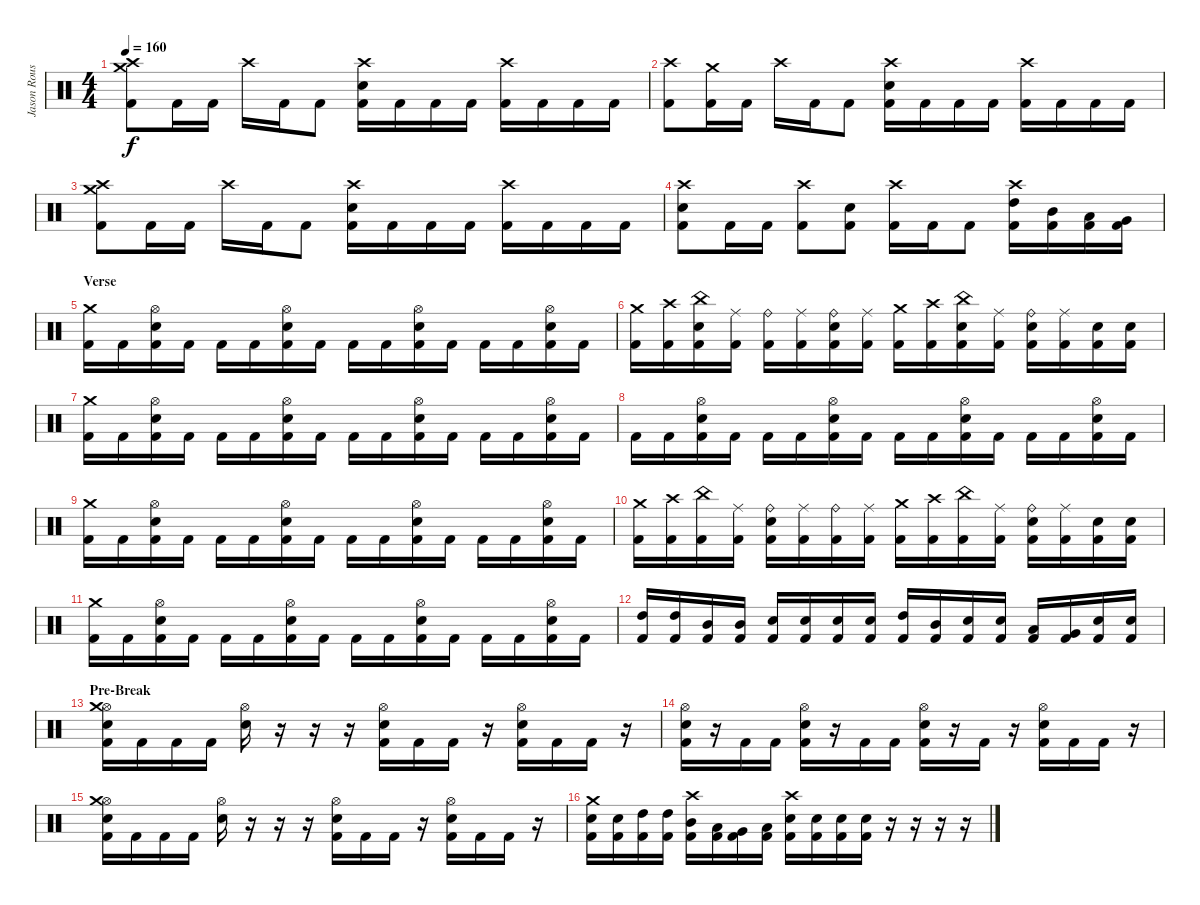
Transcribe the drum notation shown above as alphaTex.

\track ("Jason Rousseau" "Jason Rous") {instrument percussion}
\staff {score}
\articulation defaults
\ts (4 4)
\tempo 160
\clef neutral
\ks c
("Crash medium (hit)" "Crash high (hit)" "Kick (hit) 2").8{dy f} "Kick (hit) 2".16 "Kick (hit) 2".16 "Crash high (hit)".16 "Kick (hit) 2".16 "Kick (hit) 2".8 ("Crash high (hit)" "Electric Snare (hit)" "Kick (hit) 2").16 "Kick (hit) 2".16 "Kick (hit) 2".16 "Kick (hit) 2".16 ("Crash high (hit)" "Kick (hit) 2").16 "Kick (hit) 2".16 "Kick (hit) 2".16 "Kick (hit) 2".16 |
("Crash high (hit)" "Kick (hit) 2").8 ("Crash medium (hit)" "Kick (hit) 2").16 "Kick (hit) 2".16 "Crash high (hit)".16 "Kick (hit) 2".16 "Kick (hit) 2".8 ("Crash high (hit)" "Electric Snare (hit)" "Kick (hit) 2").16 "Kick (hit) 2".16 "Kick (hit) 2".16 "Kick (hit) 2".16 ("Crash high (hit)" "Kick (hit) 2").16 "Kick (hit) 2".16 "Kick (hit) 2".16 "Kick (hit) 2".16 |
("Crash medium (hit)" "Crash high (hit)" "Kick (hit) 2").8 "Kick (hit) 2".16 "Kick (hit) 2".16 "Crash high (hit)".16 "Kick (hit) 2".16 "Kick (hit) 2".8 ("Crash high (hit)" "Electric Snare (hit)" "Kick (hit) 2").16 "Kick (hit) 2".16 "Kick (hit) 2".16 "Kick (hit) 2".16 ("Crash high (hit)" "Kick (hit) 2").16 "Kick (hit) 2".16 "Kick (hit) 2".16 "Kick (hit) 2".16 |
("Crash high (hit)" "Electric Snare (hit)" "Kick (hit) 2").8 "Kick (hit) 2".16 "Kick (hit) 2".16 ("Crash high (hit)" "Kick (hit) 2").8 ("Electric Snare (hit)" "Kick (hit) 2").8 ("Crash high (hit)" "Kick (hit) 2").16 "Kick (hit) 2".16 "Kick (hit) 2".8 ("Crash high (hit)" "High Tom (hit)" "Kick (hit) 2").16 ("Mid Tom (hit)" "Kick (hit) 2").16 ("Low Tom (hit)" "Kick (hit) 2").16 ("Very Low Tom (hit)" "Kick (hit) 2").16 |
\section ("" "Verse")
("Crash medium (hit)" "Kick (hit) 2").16 "Kick (hit) 2".16 ("Hi-Hat (open)" "Electric Snare (hit)" "Kick (hit) 2").16 "Kick (hit) 2".16 "Kick (hit) 2".16 "Kick (hit) 2".16 ("Hi-Hat (open)" "Electric Snare (hit)" "Kick (hit) 2").16 "Kick (hit) 2".16 "Kick (hit) 2".16 "Kick (hit) 2".16 ("Hi-Hat (open)" "Electric Snare (hit)" "Kick (hit) 2").16 "Kick (hit) 2".16 "Kick (hit) 2".16 "Kick (hit) 2".16 ("Hi-Hat (open)" "Electric Snare (hit)" "Kick (hit) 2").16 "Kick (hit) 2".16 |
("Crash medium (hit)" "Kick (hit) 2").16 ("Crash high (hit)" "Kick (hit) 2").16 ("China (hit)" "Electric Snare (hit)" "Kick (hit) 2").16 ("Ride (middle)" "Kick (hit) 2").16 ("Ride (bell)" "Kick (hit) 2").16 ("Ride (middle)" "Kick (hit) 2").16 ("Ride (bell)" "Electric Snare (hit)" "Kick (hit) 2").16 ("Ride (middle)" "Kick (hit) 2").16 ("Crash medium (hit)" "Kick (hit) 2").16 ("Crash high (hit)" "Kick (hit) 2").16 ("China (hit)" "Electric Snare (hit)" "Kick (hit) 2").16 ("Ride (middle)" "Kick (hit) 2").16 ("Ride (bell)" "Electric Snare (hit)" "Kick (hit) 2").16 ("Ride (middle)" "Kick (hit) 2").16 ("Electric Snare (hit)" "Kick (hit) 2").16 ("Electric Snare (hit)" "Kick (hit) 2").16 |
("Crash medium (hit)" "Kick (hit) 2").16 "Kick (hit) 2".16 ("Hi-Hat (open)" "Electric Snare (hit)" "Kick (hit) 2").16 "Kick (hit) 2".16 "Kick (hit) 2".16 "Kick (hit) 2".16 ("Hi-Hat (open)" "Electric Snare (hit)" "Kick (hit) 2").16 "Kick (hit) 2".16 "Kick (hit) 2".16 "Kick (hit) 2".16 ("Hi-Hat (open)" "Electric Snare (hit)" "Kick (hit) 2").16 "Kick (hit) 2".16 "Kick (hit) 2".16 "Kick (hit) 2".16 ("Hi-Hat (open)" "Electric Snare (hit)" "Kick (hit) 2").16 "Kick (hit) 2".16 |
"Kick (hit) 2".16 "Kick (hit) 2".16 ("Hi-Hat (open)" "Electric Snare (hit)" "Kick (hit) 2").16 "Kick (hit) 2".16 "Kick (hit) 2".16 "Kick (hit) 2".16 ("Hi-Hat (open)" "Electric Snare (hit)" "Kick (hit) 2").16 "Kick (hit) 2".16 "Kick (hit) 2".16 "Kick (hit) 2".16 ("Hi-Hat (open)" "Electric Snare (hit)" "Kick (hit) 2").16 "Kick (hit) 2".16 "Kick (hit) 2".16 "Kick (hit) 2".16 ("Hi-Hat (open)" "Electric Snare (hit)" "Kick (hit) 2").16 "Kick (hit) 2".16 |
("Crash medium (hit)" "Kick (hit) 2").16 "Kick (hit) 2".16 ("Hi-Hat (open)" "Electric Snare (hit)" "Kick (hit) 2").16 "Kick (hit) 2".16 "Kick (hit) 2".16 "Kick (hit) 2".16 ("Hi-Hat (open)" "Electric Snare (hit)" "Kick (hit) 2").16 "Kick (hit) 2".16 "Kick (hit) 2".16 "Kick (hit) 2".16 ("Hi-Hat (open)" "Electric Snare (hit)" "Kick (hit) 2").16 "Kick (hit) 2".16 "Kick (hit) 2".16 "Kick (hit) 2".16 ("Hi-Hat (open)" "Electric Snare (hit)" "Kick (hit) 2").16 "Kick (hit) 2".16 |
("Crash medium (hit)" "Kick (hit) 2").16 ("Crash high (hit)" "Kick (hit) 2").16 ("China (hit)" "Kick (hit) 2").16 ("Ride (middle)" "Kick (hit) 2").16 ("Ride (bell)" "Electric Snare (hit)" "Kick (hit) 2").16 ("Ride (middle)" "Kick (hit) 2").16 ("Ride (bell)" "Kick (hit) 2").16 ("Ride (middle)" "Kick (hit) 2").16 ("Crash medium (hit)" "Kick (hit) 2").16 ("Crash high (hit)" "Kick (hit) 2").16 ("China (hit)" "Kick (hit) 2").16 ("Ride (middle)" "Kick (hit) 2").16 ("Ride (bell)" "Electric Snare (hit)" "Kick (hit) 2").16 ("Ride (middle)" "Kick (hit) 2").16 ("Electric Snare (hit)" "Kick (hit) 2").16 ("Electric Snare (hit)" "Kick (hit) 2").16 |
("Crash medium (hit)" "Kick (hit) 2").16 "Kick (hit) 2".16 ("Hi-Hat (open)" "Electric Snare (hit)" "Kick (hit) 2").16 "Kick (hit) 2".16 "Kick (hit) 2".16 "Kick (hit) 2".16 ("Hi-Hat (open)" "Electric Snare (hit)" "Kick (hit) 2").16 "Kick (hit) 2".16 "Kick (hit) 2".16 "Kick (hit) 2".16 ("Hi-Hat (open)" "Electric Snare (hit)" "Kick (hit) 2").16 "Kick (hit) 2".16 "Kick (hit) 2".16 "Kick (hit) 2".16 ("Hi-Hat (open)" "Electric Snare (hit)" "Kick (hit) 2").16 "Kick (hit) 2".16 |
("High Tom (hit)" "Kick (hit) 2").16 ("High Tom (hit)" "Kick (hit) 2").16 ("Mid Tom (hit)" "Kick (hit) 2").16 ("Mid Tom (hit)" "Kick (hit) 2").16 ("Electric Snare (hit)" "Kick (hit) 2").16 ("Electric Snare (hit)" "Kick (hit) 2").16 ("Electric Snare (hit)" "Kick (hit) 2").16 ("Electric Snare (hit)" "Kick (hit) 2").16 ("High Tom (hit)" "Kick (hit) 2").16 ("Mid Tom (hit)" "Kick (hit) 2").16 ("Electric Snare (hit)" "Kick (hit) 2").16 ("Electric Snare (hit)" "Kick (hit) 2").16 ("Low Tom (hit)" "Kick (hit) 2").16 ("Very Low Tom (hit)" "Kick (hit) 2").16 ("Electric Snare (hit)" "Kick (hit) 2").16 ("Electric Snare (hit)" "Kick (hit) 2").16 |
\section ("" "Pre-Break")
("Hi-Hat (open)" "Crash medium (hit)" "Electric Snare (hit)" "Kick (hit) 2").16 "Kick (hit) 2".16 "Kick (hit) 2".16 "Kick (hit) 2".16 ("Hi-Hat (open)" "Electric Snare (hit)").16 r.16 r.16 r.16 ("Hi-Hat (open)" "Electric Snare (hit)" "Kick (hit) 2").16 "Kick (hit) 2".16 "Kick (hit) 2".16 r.16 ("Hi-Hat (open)" "Electric Snare (hit)" "Kick (hit) 2").16 "Kick (hit) 2".16 "Kick (hit) 2".16 r.16 |
("Hi-Hat (open)" "Electric Snare (hit)" "Kick (hit) 2").16 r.16 "Kick (hit) 2".16 "Kick (hit) 2".16 ("Hi-Hat (open)" "Electric Snare (hit)" "Kick (hit) 2").16 r.16 "Kick (hit) 2".16 "Kick (hit) 2".16 ("Hi-Hat (open)" "Electric Snare (hit)" "Kick (hit) 2").16 r.16 "Kick (hit) 2".16 r.16 ("Hi-Hat (open)" "Electric Snare (hit)" "Kick (hit) 2").16 "Kick (hit) 2".16 "Kick (hit) 2".16 r.16 |
("Hi-Hat (open)" "Crash medium (hit)" "Electric Snare (hit)" "Kick (hit) 2").16 "Kick (hit) 2".16 "Kick (hit) 2".16 "Kick (hit) 2".16 ("Hi-Hat (open)" "Electric Snare (hit)").16 r.16 r.16 r.16 ("Hi-Hat (open)" "Electric Snare (hit)" "Kick (hit) 2").16 "Kick (hit) 2".16 "Kick (hit) 2".16 r.16 ("Hi-Hat (open)" "Electric Snare (hit)" "Kick (hit) 2").16 "Kick (hit) 2".16 "Kick (hit) 2".16 r.16 |
("Crash medium (hit)" "Electric Snare (hit)" "Kick (hit) 2").16 ("Electric Snare (hit)" "Kick (hit) 2").16 ("High Tom (hit)" "Kick (hit) 2").16 ("High Tom (hit)" "Kick (hit) 2").16 ("Crash high (hit)" "Mid Tom (hit)" "Kick (hit) 2").16 ("Low Tom (hit)" "Kick (hit) 2").16 ("Very Low Tom (hit)" "Kick (hit) 2").16 ("Low Floor Tom (hit)" "Kick (hit) 2").16 ("Crash high (hit)" "Electric Snare (hit)" "Kick (hit) 2").16 ("Electric Snare (hit)" "Kick (hit) 2").16 ("Electric Snare (hit)" "Kick (hit) 2").16 ("Electric Snare (hit)" "Kick (hit) 2").16 r.16 r.16 r.16 r.16
